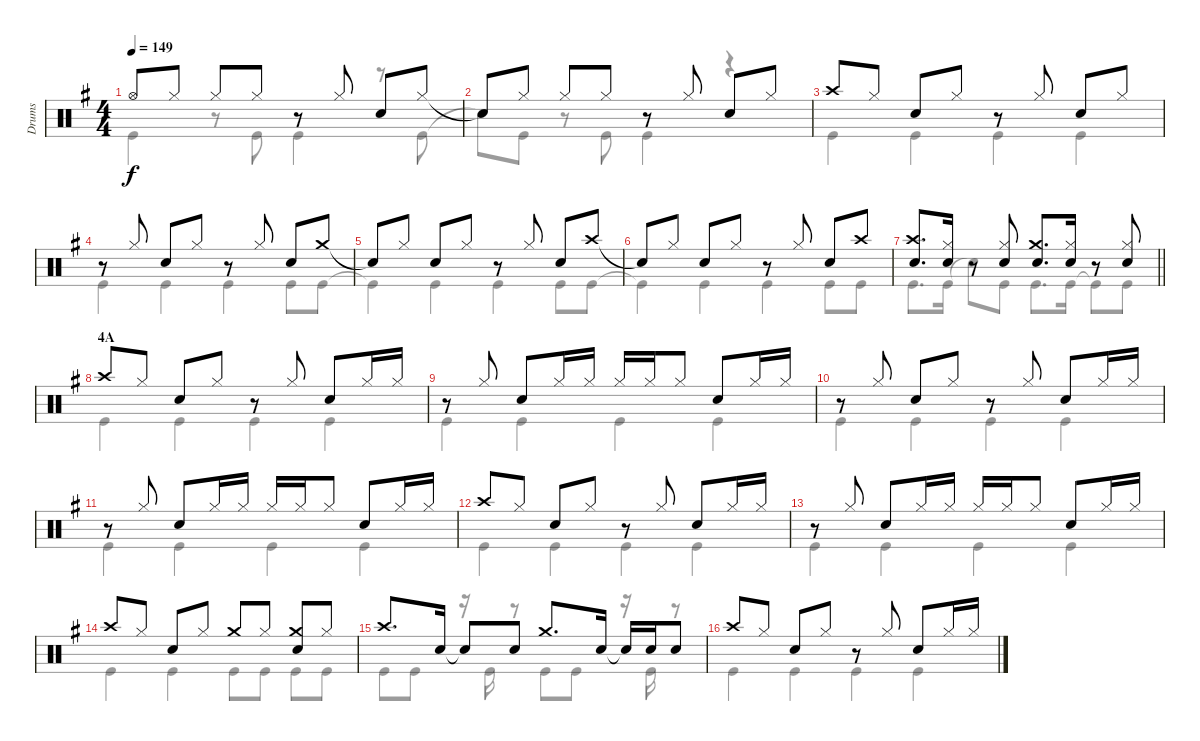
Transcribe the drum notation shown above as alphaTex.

\track ("Drums" "Drums") {instrument percussion}
\staff {score}
\articulation defaults
\voice
\ts (4 4)
\tempo 149
\clef neutral
\ks g "Hi-Hat (open)".8{dy f} "Hi-Hat (closed)".8 "Hi-Hat (closed)".8 "Hi-Hat (closed)".8
r.8 "Hi-Hat (closed)".8 "Snare (hit) 2".8 "Hi-Hat (closed)".8 |
"Snare (hit)"{t}.8 "Hi-Hat (closed)".8 "Hi-Hat (closed)".8 "Hi-Hat (closed)".8 r.8 "Hi-Hat (closed)".8 "Snare (hit) 2".8 "Hi-Hat (closed)".8 |
"Crash high (hit)".8 "Hi-Hat (closed)".8 "Snare (hit) 2".8 "Hi-Hat (closed)".8 r.8 "Hi-Hat (closed)".8 "Snare (hit) 2".8 "Hi-Hat (closed)".8 |
r.8 "Hi-Hat (closed)".8 "Snare (hit) 2".8 "Hi-Hat (closed)".8 r.8 "Hi-Hat (closed)".8 "Snare (hit) 2".8 "Crash medium (hit)".8 |
"Snare (hit)"{t}.8 "Hi-Hat (closed)".8 "Snare (hit) 2".8 "Hi-Hat (closed)".8 r.8 "Hi-Hat (closed)".8 "Snare (hit) 2".8 "Crash high (hit)".8 |
"Snare (hit)"{t}.8 "Hi-Hat (closed)".8 "Snare (hit) 2".8 "Hi-Hat (closed)".8 r.8 "Hi-Hat (closed)".8 "Snare (hit) 2".8 "Crash high (hit)".8 |
\barLineRight lightlight
("Crash high (hit)" "Snare (hit) 2").8{d} ("Hi-Hat (closed)" "Snare (hit) 2").16 r.8 ("Hi-Hat (closed)" "Snare (hit) 2").8 ("Crash medium (hit)" "Snare (hit) 2").8{d} ("Hi-Hat (closed)" "Snare (hit) 2").16 r.8 ("Hi-Hat (closed)" "Snare (hit) 2").8 |
\section ("" "4A")
"Crash high (hit)".8 "Hi-Hat (closed)".8 "Snare (hit) 2".8 "Hi-Hat (closed)".8 r.8 "Hi-Hat (closed)".8 "Snare (hit) 2".8 "Hi-Hat (closed)".16 "Hi-Hat (closed)".16 |
r.8 "Hi-Hat (closed)".8 "Snare (hit) 2".8 "Hi-Hat (closed)".16 "Hi-Hat (closed)".16 "Hi-Hat (closed)".16 "Hi-Hat (closed)".16 "Hi-Hat (closed)".8 "Snare (hit) 2".8 "Hi-Hat (closed)".16 "Hi-Hat (closed)".16 |
r.8 "Hi-Hat (closed)".8 "Snare (hit) 2".8 "Hi-Hat (closed)".8 r.8 "Hi-Hat (closed)".8 "Snare (hit) 2".8 "Hi-Hat (closed)".16 "Hi-Hat (closed)".16 |
r.8 "Hi-Hat (closed)".8 "Snare (hit) 2".8 "Hi-Hat (closed)".16 "Hi-Hat (closed)".16 "Hi-Hat (closed)".16 "Hi-Hat (closed)".16 "Hi-Hat (closed)".8 "Snare (hit) 2".8 "Hi-Hat (closed)".16 "Hi-Hat (closed)".16 |
"Crash high (hit)".8 "Hi-Hat (closed)".8 "Snare (hit) 2".8 "Hi-Hat (closed)".8 r.8 "Hi-Hat (closed)".8 "Snare (hit) 2".8 "Hi-Hat (closed)".16 "Hi-Hat (closed)".16 |
r.8 "Hi-Hat (closed)".8 "Snare (hit) 2".8 "Hi-Hat (closed)".16 "Hi-Hat (closed)".16 "Hi-Hat (closed)".16 "Hi-Hat (closed)".16 "Hi-Hat (closed)".8 "Snare (hit) 2".8 "Hi-Hat (closed)".16 "Hi-Hat (closed)".16 |
"Crash high (hit)".8 "Hi-Hat (closed)".8 "Snare (hit) 2".8 "Hi-Hat (closed)".8 "Crash medium (hit)".8 "Hi-Hat (closed)".8 ("Crash medium (hit)" "Snare (hit) 2").8 "Hi-Hat (closed)".8 |
"Crash high (hit)".8{d} "Snare (hit) 2".16 "Snare (hit)"{t}.8 "Snare (hit) 2".8 "Crash medium (hit)".8{d} "Snare (hit) 2".16 "Snare (hit)"{t}.16 "Snare (hit) 2".16 "Snare (hit) 2".8 |
"Crash high (hit)".8 "Hi-Hat (closed)".8 "Snare (hit) 2".8 "Hi-Hat (closed)".8 r.8 "Hi-Hat (closed)".8 "Snare (hit) 2".8 "Hi-Hat (closed)".16 "Hi-Hat (closed)".16
\voice
\clef neutral
\ottava regular
\simile none
\ks g "Kick (hit)".4{dy f}
r.8 "Kick (hit)".8 "Kick (hit)".4 r.8 "Kick (hit)".8 |
"Snare (hit)"{t}.8 "Kick (hit)".8 r.8 "Kick (hit)".8 "Kick (hit)".4 r.4 |
"Kick (hit)".4 "Kick (hit)".4 "Kick (hit)".4 "Kick (hit)".4 |
"Kick (hit)".4 "Kick (hit)".4 "Kick (hit)".4 "Kick (hit)".8 "Kick (hit)".8 |
"Kick (hit)"{t}.4 "Kick (hit)".4 "Kick (hit)".4 "Kick (hit)".8 "Kick (hit)".8 |
"Kick (hit)"{t}.4 "Kick (hit)".4 "Kick (hit)".4 "Kick (hit)".8 "Kick (hit)".8 |
\barLineRight lightlight "Kick (hit)".8{d} "Kick (hit)".16 "Snare (hit)"{t}.8 "Kick (hit)".8 "Kick (hit)".8{d} "Kick (hit)".16 "Kick (hit)"{t}.8 "Kick (hit)".8
|
"Kick (hit)".4 "Kick (hit)".4 "Kick (hit)".4 "Kick (hit)".4 |
"Kick (hit)".4 "Kick (hit)".4 "Kick (hit)".4 "Kick (hit)".4 |
"Kick (hit)".4 "Kick (hit)".4 "Kick (hit)".4 "Kick (hit)".4 |
"Kick (hit)".4 "Kick (hit)".4 "Kick (hit)".4 "Kick (hit)".4 |
"Kick (hit)".4 "Kick (hit)".4 "Kick (hit)".4 "Kick (hit)".4 |
"Kick (hit)".4 "Kick (hit)".4 "Kick (hit)".4 "Kick (hit)".4 |
"Kick (hit)".4 "Kick (hit)".4 "Kick (hit)".8 "Kick (hit)".8 "Kick (hit)".8 "Kick (hit)".8 |
"Kick (hit)".8 "Kick (hit)".8 r.16 "Kick (hit)".16 r.8 "Kick (hit)".8 "Kick (hit)".8 r.16 "Kick (hit)".16 r.8 |
"Kick (hit)".4 "Kick (hit)".4 "Kick (hit)".4 "Kick (hit)".4
